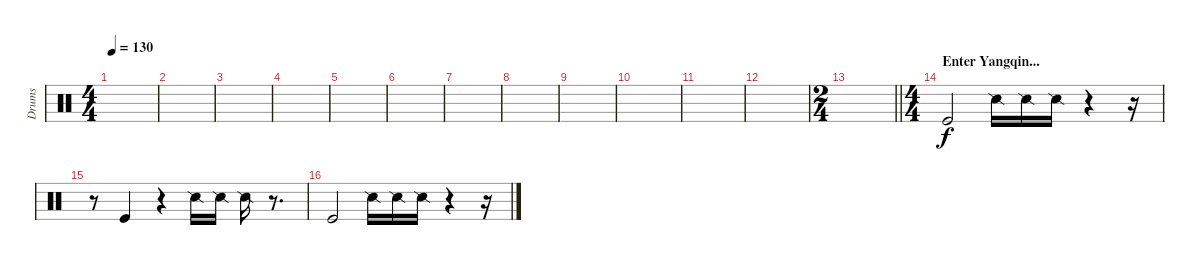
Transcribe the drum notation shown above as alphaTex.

\track ("Drums" "Drums") {instrument percussion}
\staff {score}
\articulation defaults
\ts (4 4)
\tempo 130
\clef neutral
\ks c
|
|
|
|
|
|
|
|
|
|
|
|
\ts (2 4)
\barLineRight lightlight
|
\ts (4 4)
\section ("" "Enter Yangqin...")
"Kick (hit)".2 "Snare (side stick) 2".16 "Snare (side stick) 2".16 "Snare (side stick) 2".16 r.4 r.16 |
r.8 "Kick (hit)".4 r.4 "Snare (side stick) 2".16 "Snare (side stick) 2".16 "Snare (side stick) 2".16 r.8{d} |
"Kick (hit)".2 "Snare (side stick) 2".16 "Snare (side stick) 2".16 "Snare (side stick) 2".16 r.4 r.16
